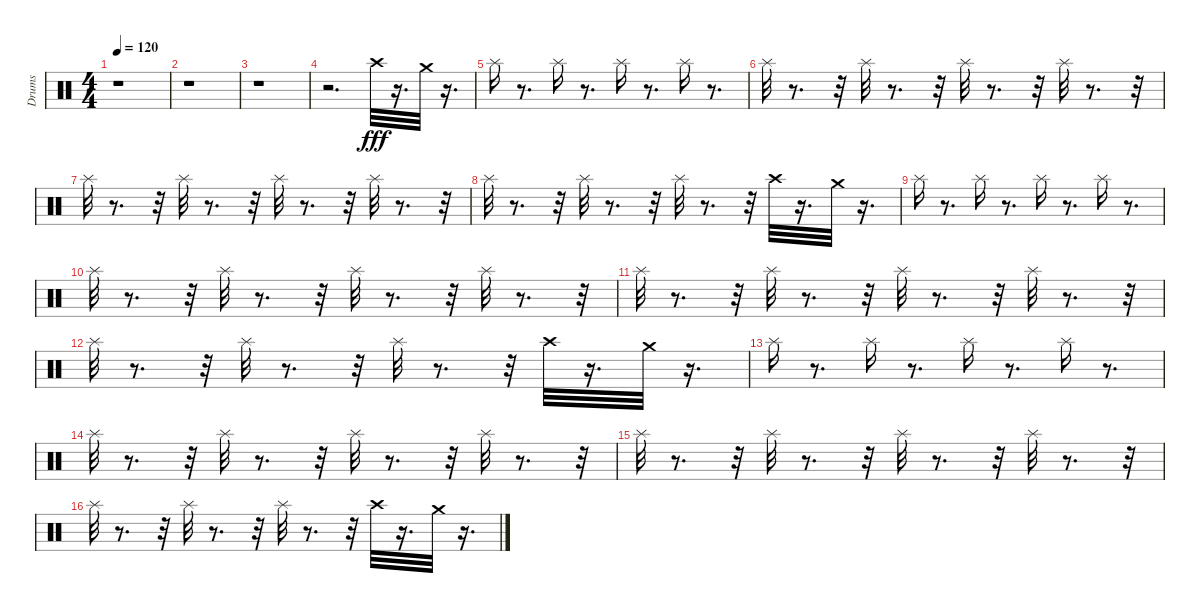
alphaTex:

\track ("Drums" "Drums") {instrument percussion}
\staff {score}
\articulation defaults
\ts (4 4)
\tempo 120
\clef neutral
\ks c
r.1{dy fff} |
r.1 |
r.1 |
r.2{d} "Crash high (hit)".32 r.16{d} "Crash medium (hit)".32 r.16{d} |
"Splash (hit)".16 r.8{d} "Splash (hit)".16 r.8{d} "Splash (hit)".16 r.8{d} "Splash (hit)".16 r.8{d} |
"Splash (hit)".32 r.8{d} r.32 "Splash (hit)".32 r.8{d} r.32 "Splash (hit)".32 r.8{d} r.32 "Splash (hit)".32 r.8{d} r.32 |
"Splash (hit)".32 r.8{d} r.32 "Splash (hit)".32 r.8{d} r.32 "Splash (hit)".32 r.8{d} r.32 "Splash (hit)".32 r.8{d} r.32 |
"Splash (hit)".32 r.8{d} r.32 "Splash (hit)".32 r.8{d} r.32 "Splash (hit)".32 r.8{d} r.32 "Crash high (hit)".32 r.16{d} "Crash medium (hit)".32 r.16{d} |
"Splash (hit)".16 r.8{d} "Splash (hit)".16 r.8{d} "Splash (hit)".16 r.8{d} "Splash (hit)".16 r.8{d} |
"Splash (hit)".32 r.8{d} r.32 "Splash (hit)".32 r.8{d} r.32 "Splash (hit)".32 r.8{d} r.32 "Splash (hit)".32 r.8{d} r.32 |
"Splash (hit)".32 r.8{d} r.32 "Splash (hit)".32 r.8{d} r.32 "Splash (hit)".32 r.8{d} r.32 "Splash (hit)".32 r.8{d} r.32 |
"Splash (hit)".32 r.8{d} r.32 "Splash (hit)".32 r.8{d} r.32 "Splash (hit)".32 r.8{d} r.32 "Crash high (hit)".32 r.16{d} "Crash medium (hit)".32 r.16{d} |
"Splash (hit)".16 r.8{d} "Splash (hit)".16 r.8{d} "Splash (hit)".16 r.8{d} "Splash (hit)".16 r.8{d} |
"Splash (hit)".32 r.8{d} r.32 "Splash (hit)".32 r.8{d} r.32 "Splash (hit)".32 r.8{d} r.32 "Splash (hit)".32 r.8{d} r.32 |
"Splash (hit)".32 r.8{d} r.32 "Splash (hit)".32 r.8{d} r.32 "Splash (hit)".32 r.8{d} r.32 "Splash (hit)".32 r.8{d} r.32 |
"Splash (hit)".32 r.8{d} r.32 "Splash (hit)".32 r.8{d} r.32 "Splash (hit)".32 r.8{d} r.32 "Crash high (hit)".32 r.16{d} "Crash medium (hit)".32 r.16{d}
